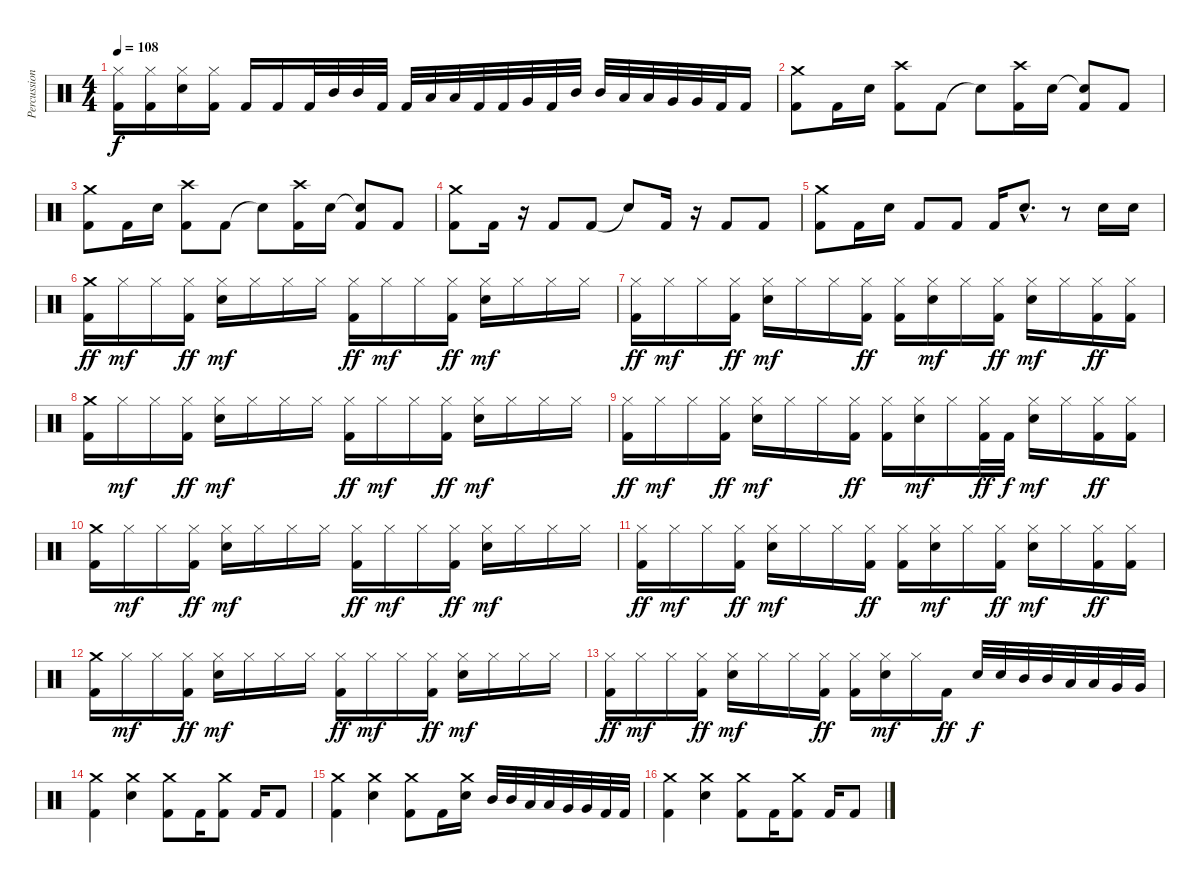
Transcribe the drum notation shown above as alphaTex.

\track ("Percussions" "Percussion") {instrument percussion}
\staff {score}
\articulation defaults
\ts (4 4)
\tempo 108
\clef neutral
\ks c
("Hi-Hat (closed)" "Kick (hit) 2").16{dy f} ("Hi-Hat (closed)" "Kick (hit) 2").16 ("Hi-Hat (closed)" "Electric Snare (hit)").16 ("Hi-Hat (closed)" "Kick (hit) 2").16 "Kick (hit) 2".16 "Kick (hit) 2".16 "Kick (hit) 2".32 "Mid Tom (hit)".32 "Mid Tom (hit)".32 "Kick (hit) 2".32 "Kick (hit) 2".32 "Low Tom (hit)".32 "Low Tom (hit)".32 "Kick (hit) 2".32 "Kick (hit) 2".32 "Very Low Tom (hit)".32 "Kick (hit) 2".32 "Mid Tom (hit)".32 "Mid Tom (hit)".32 "Low Tom (hit)".32 "Low Tom (hit)".32 "Very Low Tom (hit)".32 "Very Low Tom (hit)".32 "Kick (hit) 2".32 "Kick (hit) 2".16 |
("Crash medium (hit)" "Kick (hit) 2").8 "Kick (hit) 2".16 "Electric Snare (hit)".16 ("Crash high (hit)" "Kick (hit) 2").8 "Kick (hit) 2".8 "Snare (hit)"{t}.8 ("Crash high (hit)" "Kick (hit) 2").16 "Electric Snare (hit)".16 ("Snare (hit)"{t} "Kick (hit) 2").8 "Kick (hit) 2".8 |
("Crash medium (hit)" "Kick (hit) 2").8 "Kick (hit) 2".16 "Electric Snare (hit)".16 ("Crash high (hit)" "Kick (hit) 2").8 "Kick (hit) 2".8 "Snare (hit)"{t}.8 ("Crash high (hit)" "Kick (hit) 2").16 "Electric Snare (hit)".16 ("Snare (hit)"{t} "Kick (hit) 2").8 "Kick (hit) 2".8 |
("Crash medium (hit)" "Kick (hit) 2").8 "Kick (hit) 2".16 r.16 "Kick (hit) 2".8 "Kick (hit) 2".8 "Snare (hit)"{t}.8 "Kick (hit) 2".16 r.16 "Kick (hit) 2".8 "Kick (hit) 2".8 |
("Crash medium (hit)" "Kick (hit) 2").8 "Kick (hit) 2".16 "Electric Snare (hit)".16 "Kick (hit) 2".8 "Kick (hit) 2".8 "Kick (hit) 2".16 "Electric Snare (hit)"{hac}.8{d} r.8 "Electric Snare (hit)".16 "Electric Snare (hit)".16 |
("Crash medium (hit)" "Kick (hit) 2").16{dy ff} "Hi-Hat (closed)".16{dy mf} "Hi-Hat (closed)".16 ("Hi-Hat (closed)" "Kick (hit) 2").16{dy ff} ("Hi-Hat (closed)" "Electric Snare (hit)").16{dy mf} "Hi-Hat (closed)".16 "Hi-Hat (closed)".16 "Hi-Hat (closed)".16 ("Hi-Hat (closed)" "Kick (hit) 2").16{dy ff} "Hi-Hat (closed)".16{dy mf} "Hi-Hat (closed)".16 ("Hi-Hat (closed)" "Kick (hit) 2").16{dy ff} ("Hi-Hat (closed)" "Electric Snare (hit)").16{dy mf} "Hi-Hat (closed)".16 "Hi-Hat (closed)".16 "Hi-Hat (closed)".16 |
("Hi-Hat (closed)" "Kick (hit) 2").16{dy ff} "Hi-Hat (closed)".16{dy mf} "Hi-Hat (closed)".16 ("Hi-Hat (closed)" "Kick (hit) 2").16{dy ff} ("Hi-Hat (closed)" "Electric Snare (hit)").16{dy mf} "Hi-Hat (closed)".16 "Hi-Hat (closed)".16 ("Hi-Hat (closed)" "Kick (hit) 2").16{dy ff} ("Hi-Hat (closed)" "Kick (hit) 2").16 ("Hi-Hat (closed)" "Electric Snare (hit)").16{dy mf} "Hi-Hat (closed)".16 ("Hi-Hat (closed)" "Kick (hit) 2").16{dy ff} ("Hi-Hat (closed)" "Electric Snare (hit)").16{dy mf} "Hi-Hat (closed)".16 ("Hi-Hat (closed)" "Kick (hit) 2").16{dy ff} ("Hi-Hat (closed)" "Kick (hit) 2").16 |
("Crash medium (hit)" "Kick (hit) 2").16 "Hi-Hat (closed)".16{dy mf} "Hi-Hat (closed)".16 ("Hi-Hat (closed)" "Kick (hit) 2").16{dy ff} ("Hi-Hat (closed)" "Electric Snare (hit)").16{dy mf} "Hi-Hat (closed)".16 "Hi-Hat (closed)".16 "Hi-Hat (closed)".16 ("Hi-Hat (closed)" "Kick (hit) 2").16{dy ff} "Hi-Hat (closed)".16{dy mf} "Hi-Hat (closed)".16 ("Hi-Hat (closed)" "Kick (hit) 2").16{dy ff} ("Hi-Hat (closed)" "Electric Snare (hit)").16{dy mf} "Hi-Hat (closed)".16 "Hi-Hat (closed)".16 "Hi-Hat (closed)".16 |
("Hi-Hat (closed)" "Kick (hit) 2").16{dy ff} "Hi-Hat (closed)".16{dy mf} "Hi-Hat (closed)".16 ("Hi-Hat (closed)" "Kick (hit) 2").16{dy ff} ("Hi-Hat (closed)" "Electric Snare (hit)").16{dy mf} "Hi-Hat (closed)".16 "Hi-Hat (closed)".16 ("Hi-Hat (closed)" "Kick (hit) 2").16{dy ff} ("Hi-Hat (closed)" "Kick (hit) 2").16 ("Hi-Hat (closed)" "Electric Snare (hit)").16{dy mf} "Hi-Hat (closed)".16 ("Hi-Hat (closed)" "Kick (hit) 2").32{dy ff} "Kick (hit) 2".32{dy f} ("Hi-Hat (closed)" "Electric Snare (hit)").16{dy mf} "Hi-Hat (closed)".16 ("Hi-Hat (closed)" "Kick (hit) 2").16{dy ff} ("Hi-Hat (closed)" "Kick (hit) 2").16 |
("Crash medium (hit)" "Kick (hit) 2").16 "Hi-Hat (closed)".16{dy mf} "Hi-Hat (closed)".16 ("Hi-Hat (closed)" "Kick (hit) 2").16{dy ff} ("Hi-Hat (closed)" "Electric Snare (hit)").16{dy mf} "Hi-Hat (closed)".16 "Hi-Hat (closed)".16 "Hi-Hat (closed)".16 ("Hi-Hat (closed)" "Kick (hit) 2").16{dy ff} "Hi-Hat (closed)".16{dy mf} "Hi-Hat (closed)".16 ("Hi-Hat (closed)" "Kick (hit) 2").16{dy ff} ("Hi-Hat (closed)" "Electric Snare (hit)").16{dy mf} "Hi-Hat (closed)".16 "Hi-Hat (closed)".16 "Hi-Hat (closed)".16 |
("Hi-Hat (closed)" "Kick (hit) 2").16{dy ff} "Hi-Hat (closed)".16{dy mf} "Hi-Hat (closed)".16 ("Hi-Hat (closed)" "Kick (hit) 2").16{dy ff} ("Hi-Hat (closed)" "Electric Snare (hit)").16{dy mf} "Hi-Hat (closed)".16 "Hi-Hat (closed)".16 ("Hi-Hat (closed)" "Kick (hit) 2").16{dy ff} ("Hi-Hat (closed)" "Kick (hit) 2").16 ("Hi-Hat (closed)" "Electric Snare (hit)").16{dy mf} "Hi-Hat (closed)".16 ("Hi-Hat (closed)" "Kick (hit) 2").16{dy ff} ("Hi-Hat (closed)" "Electric Snare (hit)").16{dy mf} "Hi-Hat (closed)".16 ("Hi-Hat (closed)" "Kick (hit) 2").16{dy ff} ("Hi-Hat (closed)" "Kick (hit) 2").16 |
("Crash medium (hit)" "Kick (hit) 2").16 "Hi-Hat (closed)".16{dy mf} "Hi-Hat (closed)".16 ("Hi-Hat (closed)" "Kick (hit) 2").16{dy ff} ("Hi-Hat (closed)" "Electric Snare (hit)").16{dy mf} "Hi-Hat (closed)".16 "Hi-Hat (closed)".16 "Hi-Hat (closed)".16 ("Hi-Hat (closed)" "Kick (hit) 2").16{dy ff} "Hi-Hat (closed)".16{dy mf} "Hi-Hat (closed)".16 ("Hi-Hat (closed)" "Kick (hit) 2").16{dy ff} ("Hi-Hat (closed)" "Electric Snare (hit)").16{dy mf} "Hi-Hat (closed)".16 "Hi-Hat (closed)".16 "Hi-Hat (closed)".16 |
("Hi-Hat (closed)" "Kick (hit) 2").16{dy ff} "Hi-Hat (closed)".16{dy mf} "Hi-Hat (closed)".16 ("Hi-Hat (closed)" "Kick (hit) 2").16{dy ff} ("Hi-Hat (closed)" "Electric Snare (hit)").16{dy mf} "Hi-Hat (closed)".16 "Hi-Hat (closed)".16 ("Hi-Hat (closed)" "Kick (hit) 2").16{dy ff} ("Hi-Hat (closed)" "Kick (hit) 2").16 ("Hi-Hat (closed)" "Electric Snare (hit)").16{dy mf} "Hi-Hat (closed)".16 "Kick (hit) 2".16{dy ff} "Electric Snare (hit)".32{dy f} "Electric Snare (hit)".32 "Mid Tom (hit)".32 "Mid Tom (hit)".32 "Low Tom (hit)".32 "Low Tom (hit)".32 "Very Low Tom (hit)".32 "Very Low Tom (hit)".32 |
("Crash medium (hit)" "Kick (hit) 2").4 ("Crash medium (hit)" "Electric Snare (hit)").4 ("Crash medium (hit)" "Kick (hit) 2").8 "Kick (hit) 2".16 ("Crash medium (hit)" "Kick (hit) 2").8 "Kick (hit) 2".16 "Kick (hit) 2".8 |
("Crash medium (hit)" "Kick (hit) 2").4 ("Crash medium (hit)" "Electric Snare (hit)").4 ("Crash medium (hit)" "Kick (hit) 2").8 "Kick (hit) 2".16 ("Crash medium (hit)" "Electric Snare (hit)").16 "Mid Tom (hit)".32 "Mid Tom (hit)".32 "Low Tom (hit)".32 "Low Tom (hit)".32 "Very Low Tom (hit)".32 "Very Low Tom (hit)".32 "Kick (hit) 2".32 "Kick (hit) 2".32 |
("Crash medium (hit)" "Kick (hit) 2").4 ("Crash medium (hit)" "Electric Snare (hit)").4 ("Crash medium (hit)" "Kick (hit) 2").8 "Kick (hit) 2".16 ("Crash medium (hit)" "Kick (hit) 2").8 "Kick (hit) 2".16 "Kick (hit) 2".8
